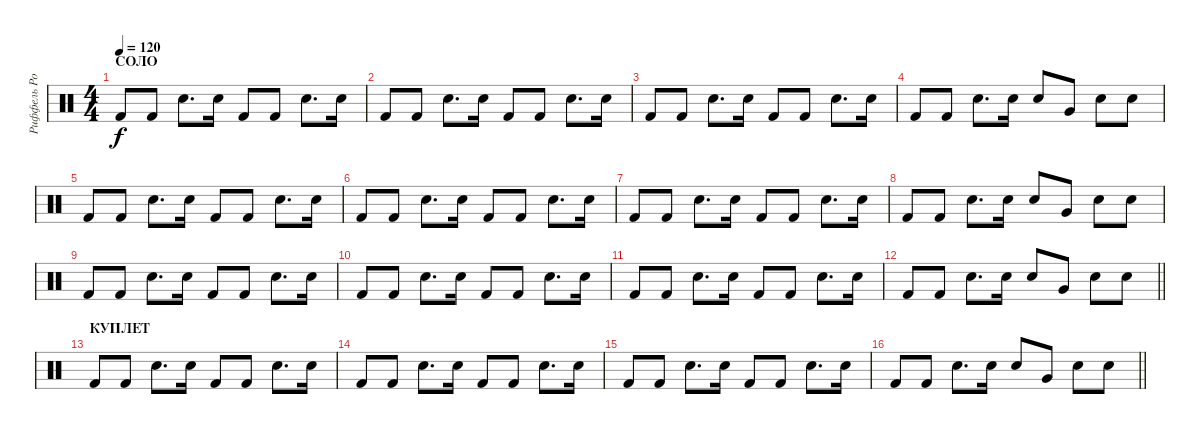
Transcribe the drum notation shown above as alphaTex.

\track ("Риффель Роман (главные)" "Риффель Ро") {instrument percussion}
\staff {score}
\articulation defaults
\ts (4 4)
\section ("" "СОЛО")
\tempo 120
\clef neutral
\ks c "Kick (hit) 2".8{dy f} "Kick (hit) 2".8 "Electric Snare (hit)".8{d} "Electric Snare (hit)".16 "Kick (hit) 2".8 "Kick (hit) 2".8 "Electric Snare (hit)".8{d} "Electric Snare (hit)".16
|
"Kick (hit) 2".8 "Kick (hit) 2".8 "Electric Snare (hit)".8{d} "Electric Snare (hit)".16 "Kick (hit) 2".8 "Kick (hit) 2".8 "Electric Snare (hit)".8{d} "Electric Snare (hit)".16 |
"Kick (hit) 2".8 "Kick (hit) 2".8 "Electric Snare (hit)".8{d} "Electric Snare (hit)".16 "Kick (hit) 2".8 "Kick (hit) 2".8 "Electric Snare (hit)".8{d} "Electric Snare (hit)".16 |
"Kick (hit) 2".8 "Kick (hit) 2".8 "Electric Snare (hit)".8{d} "Electric Snare (hit)".16 "Electric Snare (hit)".8 "Very Low Tom (hit)".8 "Electric Snare (hit)".8 "Electric Snare (hit)".8 |
"Kick (hit) 2".8 "Kick (hit) 2".8 "Electric Snare (hit)".8{d} "Electric Snare (hit)".16 "Kick (hit) 2".8 "Kick (hit) 2".8 "Electric Snare (hit)".8{d} "Electric Snare (hit)".16 |
"Kick (hit) 2".8 "Kick (hit) 2".8 "Electric Snare (hit)".8{d} "Electric Snare (hit)".16 "Kick (hit) 2".8 "Kick (hit) 2".8 "Electric Snare (hit)".8{d} "Electric Snare (hit)".16 |
"Kick (hit) 2".8 "Kick (hit) 2".8 "Electric Snare (hit)".8{d} "Electric Snare (hit)".16 "Kick (hit) 2".8 "Kick (hit) 2".8 "Electric Snare (hit)".8{d} "Electric Snare (hit)".16 |
"Kick (hit) 2".8 "Kick (hit) 2".8 "Electric Snare (hit)".8{d} "Electric Snare (hit)".16 "Electric Snare (hit)".8 "Very Low Tom (hit)".8 "Electric Snare (hit)".8 "Electric Snare (hit)".8 |
"Kick (hit) 2".8 "Kick (hit) 2".8 "Electric Snare (hit)".8{d} "Electric Snare (hit)".16 "Kick (hit) 2".8 "Kick (hit) 2".8 "Electric Snare (hit)".8{d} "Electric Snare (hit)".16 |
"Kick (hit) 2".8 "Kick (hit) 2".8 "Electric Snare (hit)".8{d} "Electric Snare (hit)".16 "Kick (hit) 2".8 "Kick (hit) 2".8 "Electric Snare (hit)".8{d} "Electric Snare (hit)".16 |
"Kick (hit) 2".8 "Kick (hit) 2".8 "Electric Snare (hit)".8{d} "Electric Snare (hit)".16 "Kick (hit) 2".8 "Kick (hit) 2".8 "Electric Snare (hit)".8{d} "Electric Snare (hit)".16 |
\barLineRight lightlight "Kick (hit) 2".8 "Kick (hit) 2".8 "Electric Snare (hit)".8{d} "Electric Snare (hit)".16 "Electric Snare (hit)".8 "Very Low Tom (hit)".8 "Electric Snare (hit)".8 "Electric Snare (hit)".8
|
\section ("" "КУПЛЕТ")
"Kick (hit) 2".8 "Kick (hit) 2".8 "Electric Snare (hit)".8{d} "Electric Snare (hit)".16 "Kick (hit) 2".8 "Kick (hit) 2".8 "Electric Snare (hit)".8{d} "Electric Snare (hit)".16 |
"Kick (hit) 2".8 "Kick (hit) 2".8 "Electric Snare (hit)".8{d} "Electric Snare (hit)".16 "Kick (hit) 2".8 "Kick (hit) 2".8 "Electric Snare (hit)".8{d} "Electric Snare (hit)".16 |
"Kick (hit) 2".8 "Kick (hit) 2".8 "Electric Snare (hit)".8{d} "Electric Snare (hit)".16 "Kick (hit) 2".8 "Kick (hit) 2".8 "Electric Snare (hit)".8{d} "Electric Snare (hit)".16 |
\barLineRight lightlight "Kick (hit) 2".8 "Kick (hit) 2".8 "Electric Snare (hit)".8{d} "Electric Snare (hit)".16 "Electric Snare (hit)".8 "Very Low Tom (hit)".8 "Electric Snare (hit)".8 "Electric Snare (hit)".8
